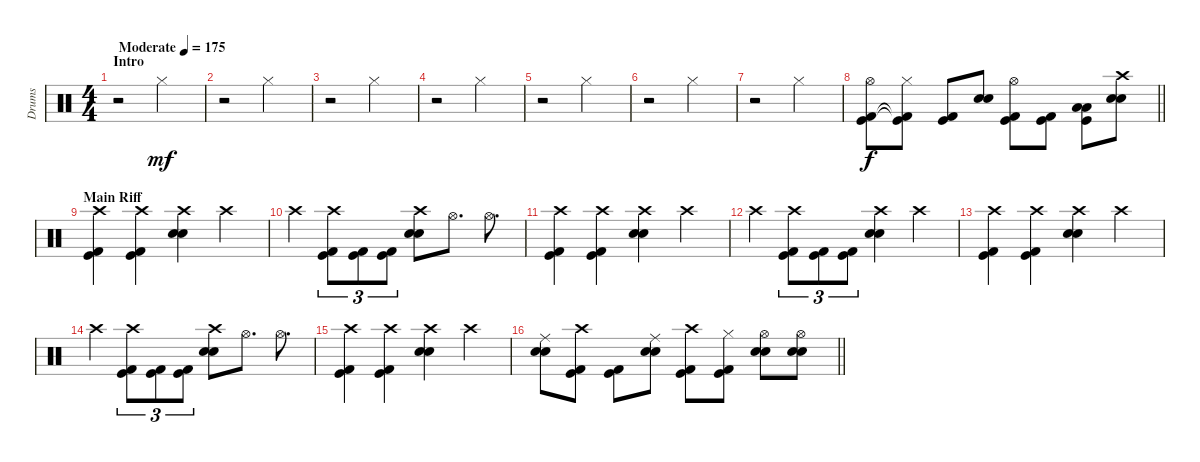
\track ("Drums" "Drums") {instrument percussion}
\staff {score}
\articulation defaults
\ts (4 4)
\section ("" "Intro")
\tempo (175 "Moderate")
\clef neutral
\ks c
r.2{dy mf} "Hi-Hat (closed)".2 |
r.2 "Hi-Hat (closed)".2 |
r.2 "Hi-Hat (closed)".2 |
r.2 "Hi-Hat (closed)".2 |
r.2 "Hi-Hat (closed)".2 |
r.2 "Hi-Hat (closed)".2 |
r.2 "Hi-Hat (closed)".2 |
\barLineRight lightlight
("Hi-Hat (open)" "Kick (hit) 2" "Kick (hit)").8{dy f} ("Hi-Hat (closed)" "Kick (hit) 2"{t} "Kick (hit)"{t}).8 ("Kick (hit) 2" "Kick (hit)").8 ("Electric Snare (hit)" "Electric Snare (hit)").8 ("Hi-Hat (open)" "Kick (hit) 2" "Kick (hit)").8 ("Kick (hit) 2" "Kick (hit)").8 ("Low Floor Tom (hit)" "Low Floor Tom (hit)" "Kick (hit)").8 ("Crash high (hit)" "Electric Snare (hit)" "Electric Snare (hit)").8 |
\section ("" "Main Riff")
("Crash high (hit)" "Kick (hit) 2" "Kick (hit)").4 ("Crash high (hit)" "Kick (hit) 2" "Kick (hit)").4 ("Crash high (hit)" "Electric Snare (hit)" "Electric Snare (hit)").4 "Crash high (hit)".4 |
"Crash high (hit)".4 ("Crash high (hit)" "Kick (hit) 2" "Kick (hit)").8{tu (3 2)} ("Kick (hit) 2" "Kick (hit)").8{tu (3 2)} ("Kick (hit) 2" "Kick (hit)").8{tu (3 2)} ("Crash high (hit)" "Electric Snare (hit)" "Electric Snare (hit)").8 "Hi-Hat (open)".8{d} "Hi-Hat (open)".8{d} |
("Crash high (hit)" "Kick (hit) 2" "Kick (hit)").4 ("Crash high (hit)" "Kick (hit) 2" "Kick (hit)").4 ("Crash high (hit)" "Electric Snare (hit)" "Electric Snare (hit)").4 "Crash high (hit)".4 |
"Crash high (hit)".4 ("Crash high (hit)" "Kick (hit) 2" "Kick (hit)").8{tu (3 2)} ("Kick (hit) 2" "Kick (hit)").8{tu (3 2)} ("Kick (hit) 2" "Kick (hit)").8{tu (3 2)} ("Crash high (hit)" "Electric Snare (hit)" "Electric Snare (hit)").4 "Crash high (hit)".4 |
("Crash high (hit)" "Kick (hit) 2" "Kick (hit)").4 ("Crash high (hit)" "Kick (hit) 2" "Kick (hit)").4 ("Crash high (hit)" "Electric Snare (hit)" "Electric Snare (hit)").4 "Crash high (hit)".4 |
"Crash high (hit)".4 ("Crash high (hit)" "Kick (hit) 2" "Kick (hit)").8{tu (3 2)} ("Kick (hit) 2" "Kick (hit)").8{tu (3 2)} ("Kick (hit) 2" "Kick (hit)").8{tu (3 2)} ("Crash high (hit)" "Electric Snare (hit)" "Electric Snare (hit)").8 "Hi-Hat (open)".8{d} "Hi-Hat (open)".8{d} |
("Crash high (hit)" "Kick (hit) 2" "Kick (hit)").4 ("Crash high (hit)" "Kick (hit) 2" "Kick (hit)").4 ("Crash high (hit)" "Electric Snare (hit)" "Electric Snare (hit)").4 "Crash high (hit)".4 |
\barLineRight lightlight
("Ride (middle)" "Electric Snare (hit)" "Electric Snare (hit)").8 ("Crash high (hit)" "Kick (hit) 2" "Kick (hit)").8 ("Kick (hit) 2" "Kick (hit)").8 ("Ride (middle)" "Electric Snare (hit)" "Electric Snare (hit)").8 ("Crash high (hit)" "Kick (hit) 2" "Kick (hit)").8 ("Hi-Hat (closed)" "Kick (hit) 2" "Kick (hit)").8 ("Hi-Hat (open)" "Electric Snare (hit)" "Electric Snare (hit)").8 ("Hi-Hat (open)" "Electric Snare (hit)" "Electric Snare (hit)").8
